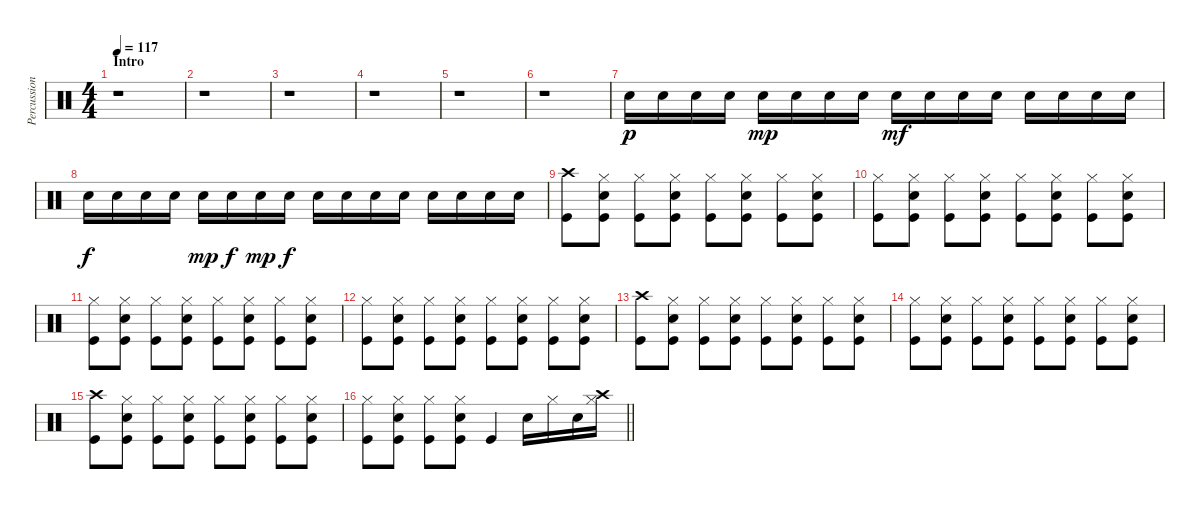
\track ("Percussion" "Percussion") {instrument percussion}
\staff {score}
\articulation defaults
\ts (4 4)
\section ("" "Intro")
\tempo 117
\clef neutral
\ks c
r.1{dy p} |
r.1 |
r.1 |
r.1 |
r.1 |
r.1 |
"Snare (hit) 2".16 "Snare (hit) 2".16 "Snare (hit) 2".16 "Snare (hit) 2".16 "Snare (hit) 2".16{dy mp} "Snare (hit) 2".16 "Snare (hit) 2".16 "Snare (hit) 2".16 "Snare (hit) 2".16{dy mf} "Snare (hit) 2".16 "Snare (hit) 2".16 "Snare (hit) 2".16 "Snare (hit) 2".16 "Snare (hit) 2".16 "Snare (hit) 2".16 "Snare (hit) 2".16 |
"Snare (hit) 2".16{dy f} "Snare (hit) 2".16 "Snare (hit) 2".16 "Snare (hit) 2".16 "Snare (hit) 2".16{dy mp} "Snare (hit) 2".16{dy f} "Snare (hit) 2".16{dy mp} "Snare (hit) 2".16{dy f} "Snare (hit) 2".16 "Snare (hit) 2".16 "Snare (hit) 2".16 "Snare (hit) 2".16 "Snare (hit) 2".16 "Snare (hit) 2".16 "Snare (hit) 2".16 "Snare (hit) 2".16 |
("Crash high (hit)" "Kick (hit)").8 ("Hi-Hat (closed)" "Snare (hit) 2" "Kick (hit)").8 ("Hi-Hat (closed)" "Kick (hit)").8 ("Hi-Hat (closed)" "Snare (hit) 2" "Kick (hit)").8 ("Hi-Hat (closed)" "Kick (hit)").8 ("Hi-Hat (closed)" "Snare (hit) 2" "Kick (hit)").8 ("Hi-Hat (closed)" "Kick (hit)").8 ("Hi-Hat (closed)" "Snare (hit) 2" "Kick (hit)").8 |
("Hi-Hat (closed)" "Kick (hit)").8 ("Hi-Hat (closed)" "Snare (hit) 2" "Kick (hit)").8 ("Hi-Hat (closed)" "Kick (hit)").8 ("Hi-Hat (closed)" "Snare (hit) 2" "Kick (hit)").8 ("Hi-Hat (closed)" "Kick (hit)").8 ("Hi-Hat (closed)" "Snare (hit) 2" "Kick (hit)").8 ("Hi-Hat (closed)" "Kick (hit)").8 ("Hi-Hat (closed)" "Snare (hit) 2" "Kick (hit)").8 |
("Hi-Hat (closed)" "Kick (hit)").8 ("Hi-Hat (closed)" "Snare (hit) 2" "Kick (hit)").8 ("Hi-Hat (closed)" "Kick (hit)").8 ("Hi-Hat (closed)" "Snare (hit) 2" "Kick (hit)").8 ("Hi-Hat (closed)" "Kick (hit)").8 ("Hi-Hat (closed)" "Snare (hit) 2" "Kick (hit)").8 ("Hi-Hat (closed)" "Kick (hit)").8 ("Hi-Hat (closed)" "Snare (hit) 2" "Kick (hit)").8 |
("Hi-Hat (closed)" "Kick (hit)").8 ("Hi-Hat (closed)" "Snare (hit) 2" "Kick (hit)").8 ("Hi-Hat (closed)" "Kick (hit)").8 ("Hi-Hat (closed)" "Snare (hit) 2" "Kick (hit)").8 ("Hi-Hat (closed)" "Kick (hit)").8 ("Hi-Hat (closed)" "Snare (hit) 2" "Kick (hit)").8 ("Hi-Hat (closed)" "Kick (hit)").8 ("Hi-Hat (closed)" "Snare (hit) 2" "Kick (hit)").8 |
("Crash high (hit)" "Kick (hit)").8 ("Hi-Hat (closed)" "Snare (hit) 2" "Kick (hit)").8 ("Hi-Hat (closed)" "Kick (hit)").8 ("Hi-Hat (closed)" "Snare (hit) 2" "Kick (hit)").8 ("Hi-Hat (closed)" "Kick (hit)").8 ("Hi-Hat (closed)" "Snare (hit) 2" "Kick (hit)").8 ("Hi-Hat (closed)" "Kick (hit)").8 ("Hi-Hat (closed)" "Snare (hit) 2" "Kick (hit)").8 |
("Hi-Hat (closed)" "Kick (hit)").8 ("Hi-Hat (closed)" "Snare (hit) 2" "Kick (hit)").8 ("Hi-Hat (closed)" "Kick (hit)").8 ("Hi-Hat (closed)" "Snare (hit) 2" "Kick (hit)").8 ("Hi-Hat (closed)" "Kick (hit)").8 ("Hi-Hat (closed)" "Snare (hit) 2" "Kick (hit)").8 ("Hi-Hat (closed)" "Kick (hit)").8 ("Hi-Hat (closed)" "Snare (hit) 2" "Kick (hit)").8 |
("Crash high (hit)" "Kick (hit)").8 ("Hi-Hat (closed)" "Snare (hit) 2" "Kick (hit)").8 ("Hi-Hat (closed)" "Kick (hit)").8 ("Hi-Hat (closed)" "Snare (hit) 2" "Kick (hit)").8 ("Hi-Hat (closed)" "Kick (hit)").8 ("Hi-Hat (closed)" "Snare (hit) 2" "Kick (hit)").8 ("Hi-Hat (closed)" "Kick (hit)").8 ("Hi-Hat (closed)" "Snare (hit) 2" "Kick (hit)").8 |
\barLineRight lightlight
("Hi-Hat (closed)" "Kick (hit)").8 ("Hi-Hat (closed)" "Snare (hit) 2" "Kick (hit)").8 ("Hi-Hat (closed)" "Kick (hit)").8 ("Hi-Hat (closed)" "Snare (hit) 2" "Kick (hit)").8 "Kick (hit)".4 "Snare (hit) 2".16 "Hi-Hat (closed)".16 "Snare (hit) 2".16 ("Crash high (hit)" "Hi-Hat (closed)").16
